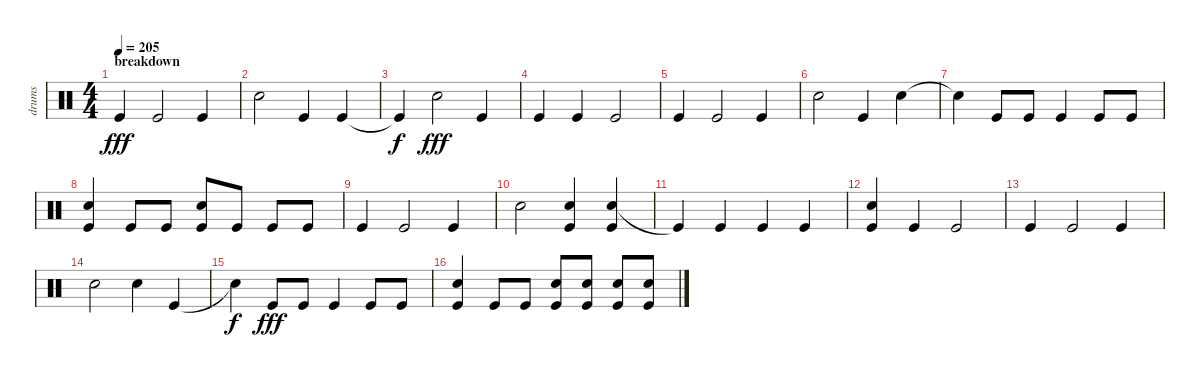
\track ("drums" "drums") {instrument percussion}
\staff {score}
\articulation defaults
\ts (4 4)
\section ("" "breakdown")
\tempo 205
\clef neutral
\ks c "Kick (hit)".4{dy fff} "Kick (hit)".2 "Kick (hit)".4
|
"Electric Snare (hit)".2 "Kick (hit)".4 "Kick (hit)".4 |
"Kick (hit)"{t}.4{dy f} "Electric Snare (hit)".2{dy fff} "Kick (hit)".4 |
"Kick (hit)".4 "Kick (hit)".4 "Kick (hit)".2 |
"Kick (hit)".4 "Kick (hit)".2 "Kick (hit)".4 |
"Electric Snare (hit)".2 "Kick (hit)".4 "Electric Snare (hit)".4 |
"Electric Snare (hit)"{t}.4 "Kick (hit)".8 "Kick (hit)".8 "Kick (hit)".4 "Kick (hit)".8 "Kick (hit)".8 |
("Electric Snare (hit)" "Kick (hit)").4 "Kick (hit)".8 "Kick (hit)".8 ("Electric Snare (hit)" "Kick (hit)").8 "Kick (hit)".8 "Kick (hit)".8 "Kick (hit)".8 |
"Kick (hit)".4 "Kick (hit)".2 "Kick (hit)".4 |
"Electric Snare (hit)".2 ("Electric Snare (hit)" "Kick (hit)").4 ("Electric Snare (hit)" "Kick (hit)").4 |
"Kick (hit)"{t}.4 "Kick (hit)".4 "Kick (hit)".4 "Kick (hit)".4 |
("Electric Snare (hit)" "Kick (hit)").4 "Kick (hit)".4 "Kick (hit)".2 |
"Kick (hit)".4 "Kick (hit)".2 "Kick (hit)".4 |
"Electric Snare (hit)".2 "Electric Snare (hit)".4 "Kick (hit)".4 |
"Snare (hit)"{t}.4{dy f} "Kick (hit)".8{dy fff} "Kick (hit)".8 "Kick (hit)".4 "Kick (hit)".8 "Kick (hit)".8 |
("Electric Snare (hit)" "Kick (hit)").4 "Kick (hit)".8 "Kick (hit)".8 ("Electric Snare (hit)" "Kick (hit)").8 ("Electric Snare (hit)" "Kick (hit)").8 ("Electric Snare (hit)" "Kick (hit)").8 ("Electric Snare (hit)" "Kick (hit)").8
